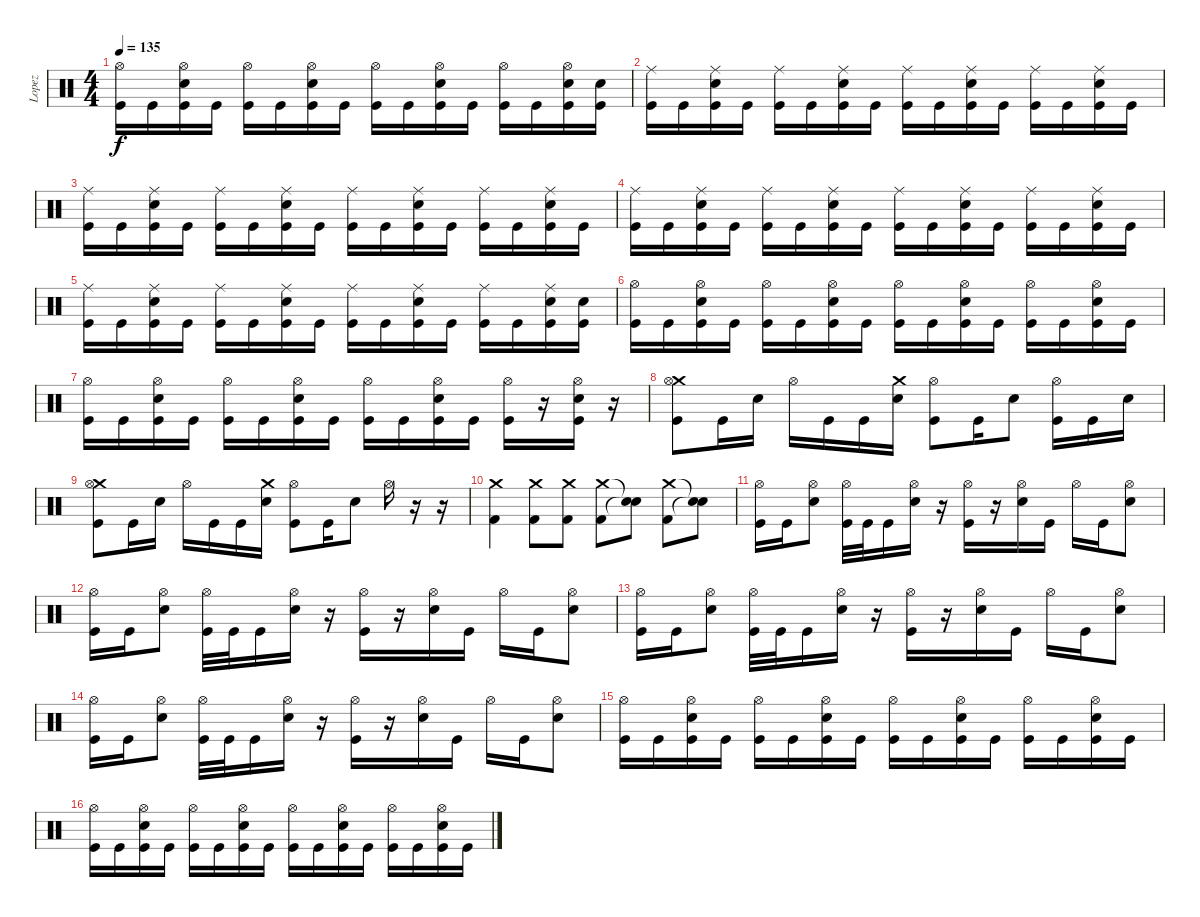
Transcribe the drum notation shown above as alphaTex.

\track ("Lopez" "Lopez") {instrument percussion}
\staff {score}
\articulation defaults
\ts (4 4)
\tempo 135
\clef neutral
\ks c
("Hi-Hat (open)" "Kick (hit)").16{dy f} "Kick (hit)".16 ("Hi-Hat (open)" "Electric Snare (hit)" "Kick (hit)").16 "Kick (hit)".16 ("Hi-Hat (open)" "Kick (hit)").16 "Kick (hit)".16 ("Hi-Hat (open)" "Electric Snare (hit)" "Kick (hit)").16 "Kick (hit)".16 ("Hi-Hat (open)" "Kick (hit)").16 "Kick (hit)".16 ("Hi-Hat (open)" "Electric Snare (hit)" "Kick (hit)").16 "Kick (hit)".16 ("Hi-Hat (open)" "Kick (hit)").16 "Kick (hit)".16 ("Hi-Hat (open)" "Electric Snare (hit)" "Kick (hit)").16 ("Electric Snare (hit)" "Kick (hit)").16 |
("Ride (middle)" "Kick (hit)").16 "Kick (hit)".16 ("Ride (middle)" "Electric Snare (hit)" "Kick (hit)").16 "Kick (hit)".16 ("Ride (middle)" "Kick (hit)").16 "Kick (hit)".16 ("Ride (middle)" "Electric Snare (hit)" "Kick (hit)").16 "Kick (hit)".16 ("Ride (middle)" "Kick (hit)").16 "Kick (hit)".16 ("Ride (middle)" "Electric Snare (hit)" "Kick (hit)").16 "Kick (hit)".16 ("Ride (middle)" "Kick (hit)").16 "Kick (hit)".16 ("Ride (middle)" "Electric Snare (hit)" "Kick (hit)").16 "Kick (hit)".16 |
("Ride (middle)" "Kick (hit)").16 "Kick (hit)".16 ("Ride (middle)" "Electric Snare (hit)" "Kick (hit)").16 "Kick (hit)".16 ("Ride (middle)" "Kick (hit)").16 "Kick (hit)".16 ("Ride (middle)" "Electric Snare (hit)" "Kick (hit)").16 "Kick (hit)".16 ("Ride (middle)" "Kick (hit)").16 "Kick (hit)".16 ("Ride (middle)" "Electric Snare (hit)" "Kick (hit)").16 "Kick (hit)".16 ("Ride (middle)" "Kick (hit)").16 "Kick (hit)".16 ("Ride (middle)" "Electric Snare (hit)" "Kick (hit)").16 "Kick (hit)".16 |
("Ride (middle)" "Kick (hit)").16 "Kick (hit)".16 ("Ride (middle)" "Electric Snare (hit)" "Kick (hit)").16 "Kick (hit)".16 ("Ride (middle)" "Kick (hit)").16 "Kick (hit)".16 ("Ride (middle)" "Electric Snare (hit)" "Kick (hit)").16 "Kick (hit)".16 ("Ride (middle)" "Kick (hit)").16 "Kick (hit)".16 ("Ride (middle)" "Electric Snare (hit)" "Kick (hit)").16 "Kick (hit)".16 ("Ride (middle)" "Kick (hit)").16 "Kick (hit)".16 ("Ride (middle)" "Electric Snare (hit)" "Kick (hit)").16 "Kick (hit)".16 |
("Ride (middle)" "Kick (hit)").16 "Kick (hit)".16 ("Ride (middle)" "Electric Snare (hit)" "Kick (hit)").16 "Kick (hit)".16 ("Ride (middle)" "Kick (hit)").16 "Kick (hit)".16 ("Ride (middle)" "Electric Snare (hit)" "Kick (hit)").16 "Kick (hit)".16 ("Ride (middle)" "Kick (hit)").16 "Kick (hit)".16 ("Ride (middle)" "Electric Snare (hit)" "Kick (hit)").16 "Kick (hit)".16 ("Ride (middle)" "Kick (hit)").16 "Kick (hit)".16 ("Ride (middle)" "Electric Snare (hit)" "Kick (hit)").16 ("Electric Snare (hit)" "Kick (hit)").16 |
("Hi-Hat (open)" "Kick (hit)").16 "Kick (hit)".16 ("Hi-Hat (open)" "Electric Snare (hit)" "Kick (hit)").16 "Kick (hit)".16 ("Hi-Hat (open)" "Kick (hit)").16 "Kick (hit)".16 ("Hi-Hat (open)" "Electric Snare (hit)" "Kick (hit)").16 "Kick (hit)".16 ("Hi-Hat (open)" "Kick (hit)").16 "Kick (hit)".16 ("Hi-Hat (open)" "Electric Snare (hit)" "Kick (hit)").16 "Kick (hit)".16 ("Hi-Hat (open)" "Kick (hit)").16 "Kick (hit)".16 ("Hi-Hat (open)" "Electric Snare (hit)" "Kick (hit)").16 "Kick (hit)".16 |
("Hi-Hat (open)" "Kick (hit)").16 "Kick (hit)".16 ("Hi-Hat (open)" "Electric Snare (hit)" "Kick (hit)").16 "Kick (hit)".16 ("Hi-Hat (open)" "Kick (hit)").16 "Kick (hit)".16 ("Hi-Hat (open)" "Electric Snare (hit)" "Kick (hit)").16 "Kick (hit)".16 ("Hi-Hat (open)" "Kick (hit)").16 "Kick (hit)".16 ("Hi-Hat (open)" "Electric Snare (hit)" "Kick (hit)").16 "Kick (hit)".16 ("Hi-Hat (open)" "Kick (hit)").16 r.16 ("Hi-Hat (open)" "Electric Snare (hit)" "Kick (hit)").16 r.16 |
("Crash medium (hit)" "Hi-Hat (open)" "Kick (hit)").8 "Kick (hit)".16 "Electric Snare (hit)".16 "Hi-Hat (open)".16 "Kick (hit)".16 "Kick (hit)".16 ("Crash medium (hit)" "Electric Snare (hit)").16 ("Hi-Hat (open)" "Kick (hit)").8 "Kick (hit)".16 "Electric Snare (hit)".8 ("Hi-Hat (open)" "Kick (hit)").16 "Kick (hit)".16 "Electric Snare (hit)".16 |
("Crash medium (hit)" "Hi-Hat (open)" "Kick (hit)").8 "Kick (hit)".16 "Electric Snare (hit)".16 "Hi-Hat (open)".16 "Kick (hit)".16 "Kick (hit)".16 ("Crash medium (hit)" "Electric Snare (hit)").16 ("Hi-Hat (open)" "Kick (hit)").8 "Kick (hit)".16 "Electric Snare (hit)".8 "Hi-Hat (open)".16 r.16 r.16 |
("Crash medium (hit)" "Kick (hit) 2").4 ("Crash medium (hit)" "Kick (hit) 2").8 ("Crash medium (hit)" "Kick (hit) 2").8 ("Crash medium (hit)" "Kick (hit) 2").8 ("Snare (hit)"{t} "Snare (hit)"{t}).8 ("Crash medium (hit)" "Kick (hit) 2").8 ("Snare (hit)"{t} "Snare (hit)"{t}).8 |
("Hi-Hat (open)" "Kick (hit)").16 "Kick (hit)".16 ("Hi-Hat (open)" "Electric Snare (hit)").8 ("Hi-Hat (open)" "Kick (hit)").32 "Kick (hit)".32 "Kick (hit)".16 ("Hi-Hat (open)" "Electric Snare (hit)").16 r.16 ("Hi-Hat (open)" "Kick (hit)").16 r.16 ("Hi-Hat (open)" "Electric Snare (hit)").16 "Kick (hit)".16 "Hi-Hat (open)".16 "Kick (hit)".16 ("Hi-Hat (open)" "Electric Snare (hit)").8 |
("Hi-Hat (open)" "Kick (hit)").16 "Kick (hit)".16 ("Hi-Hat (open)" "Electric Snare (hit)").8 ("Hi-Hat (open)" "Kick (hit)").32 "Kick (hit)".32 "Kick (hit)".16 ("Hi-Hat (open)" "Electric Snare (hit)").16 r.16 ("Hi-Hat (open)" "Kick (hit)").16 r.16 ("Hi-Hat (open)" "Electric Snare (hit)").16 "Kick (hit)".16 "Hi-Hat (open)".16 "Kick (hit)".16 ("Hi-Hat (open)" "Electric Snare (hit)").8 |
("Hi-Hat (open)" "Kick (hit)").16 "Kick (hit)".16 ("Hi-Hat (open)" "Electric Snare (hit)").8 ("Hi-Hat (open)" "Kick (hit)").32 "Kick (hit)".32 "Kick (hit)".16 ("Hi-Hat (open)" "Electric Snare (hit)").16 r.16 ("Hi-Hat (open)" "Kick (hit)").16 r.16 ("Hi-Hat (open)" "Electric Snare (hit)").16 "Kick (hit)".16 "Hi-Hat (open)".16 "Kick (hit)".16 ("Hi-Hat (open)" "Electric Snare (hit)").8 |
("Hi-Hat (open)" "Kick (hit)").16 "Kick (hit)".16 ("Hi-Hat (open)" "Electric Snare (hit)").8 ("Hi-Hat (open)" "Kick (hit)").32 "Kick (hit)".32 "Kick (hit)".16 ("Hi-Hat (open)" "Electric Snare (hit)").16 r.16 ("Hi-Hat (open)" "Kick (hit)").16 r.16 ("Hi-Hat (open)" "Electric Snare (hit)").16 "Kick (hit)".16 "Hi-Hat (open)".16 "Kick (hit)".16 ("Hi-Hat (open)" "Electric Snare (hit)").8 |
("Hi-Hat (open)" "Kick (hit)").16 "Kick (hit)".16 ("Hi-Hat (open)" "Electric Snare (hit)" "Kick (hit)").16 "Kick (hit)".16 ("Hi-Hat (open)" "Kick (hit)").16 "Kick (hit)".16 ("Hi-Hat (open)" "Electric Snare (hit)" "Kick (hit)").16 "Kick (hit)".16 ("Hi-Hat (open)" "Kick (hit)").16 "Kick (hit)".16 ("Hi-Hat (open)" "Electric Snare (hit)" "Kick (hit)").16 "Kick (hit)".16 ("Hi-Hat (open)" "Kick (hit)").16 "Kick (hit)".16 ("Hi-Hat (open)" "Electric Snare (hit)" "Kick (hit)").16 "Kick (hit)".16 |
("Hi-Hat (open)" "Kick (hit)").16 "Kick (hit)".16 ("Hi-Hat (open)" "Electric Snare (hit)" "Kick (hit)").16 "Kick (hit)".16 ("Hi-Hat (open)" "Kick (hit)").16 "Kick (hit)".16 ("Hi-Hat (open)" "Electric Snare (hit)" "Kick (hit)").16 "Kick (hit)".16 ("Hi-Hat (open)" "Kick (hit)").16 "Kick (hit)".16 ("Hi-Hat (open)" "Electric Snare (hit)" "Kick (hit)").16 "Kick (hit)".16 ("Hi-Hat (open)" "Kick (hit)").16 "Kick (hit)".16 ("Hi-Hat (open)" "Electric Snare (hit)" "Kick (hit)").16 "Kick (hit)".16
